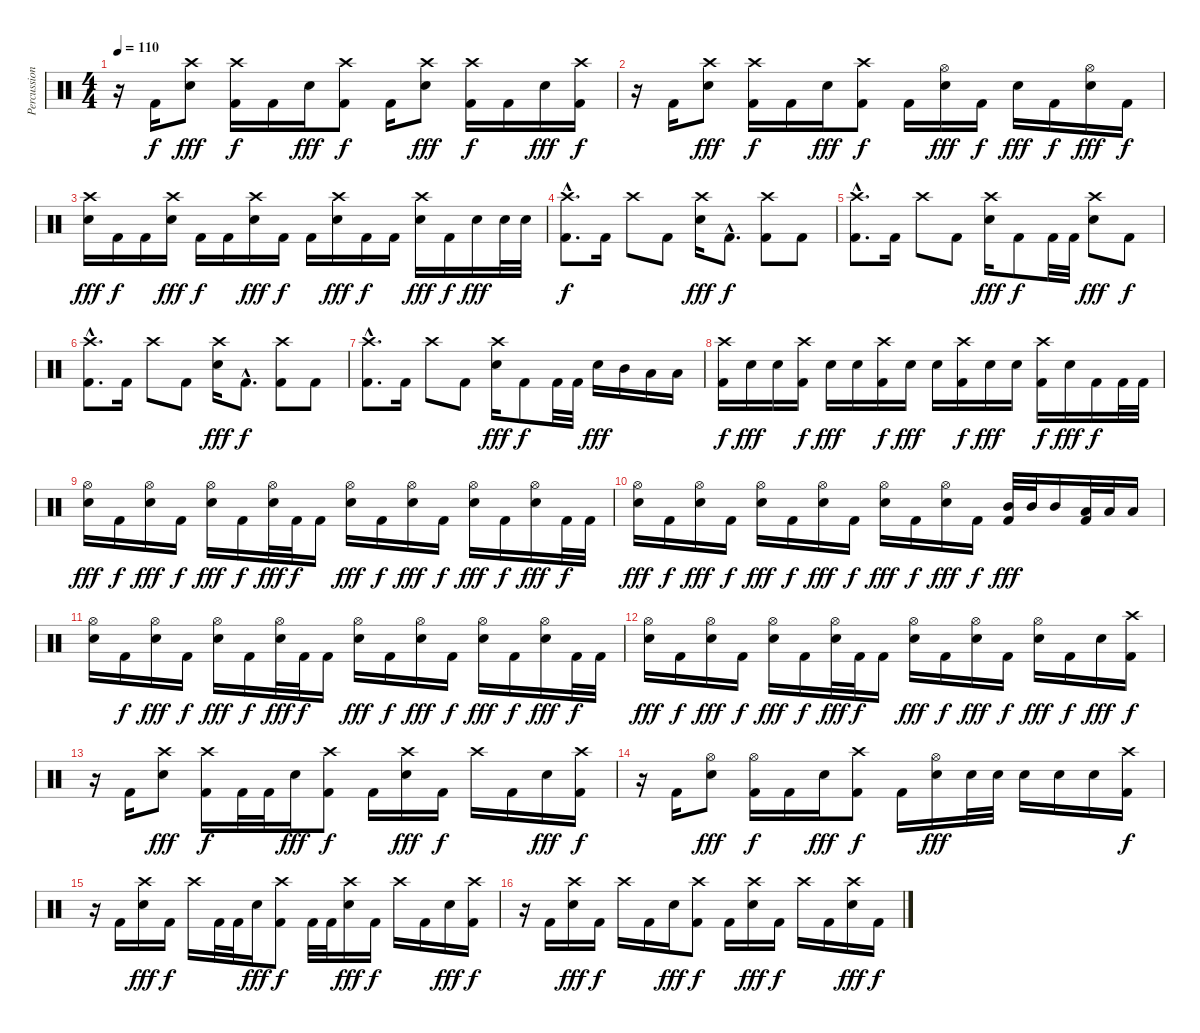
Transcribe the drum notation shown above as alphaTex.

\track ("Percussions" "Percussion") {instrument percussion}
\staff {score}
\articulation defaults
\ts (4 4)
\tempo 110
\clef neutral
\ks c
r.16{dy f} "Kick (hit) 2".16 ("Crash high (hit)" "Snare (hit) 2").8{dy fff} ("Crash high (hit)" "Kick (hit) 2").16{dy f} "Kick (hit) 2".16 "Snare (hit) 2".16{dy fff} ("Crash high (hit)" "Kick (hit) 2").8{dy f} "Kick (hit) 2".16 ("Crash high (hit)" "Snare (hit) 2").8{dy fff} ("Crash high (hit)" "Kick (hit) 2").16{dy f} "Kick (hit) 2".16 "Snare (hit) 2".16{dy fff} ("Crash high (hit)" "Kick (hit) 2").16{dy f} |
r.16 "Kick (hit) 2".16 ("Crash high (hit)" "Snare (hit) 2").8{dy fff} ("Crash high (hit)" "Kick (hit) 2").16{dy f} "Kick (hit) 2".16 "Snare (hit) 2".16{dy fff} ("Crash high (hit)" "Kick (hit) 2").8{dy f} "Kick (hit) 2".16 ("Hi-Hat (open)" "Snare (hit) 2").16{dy fff} "Kick (hit) 2".16{dy f} "Snare (hit) 2".16{dy fff} "Kick (hit) 2".16{dy f} ("Hi-Hat (open)" "Snare (hit) 2").16{dy fff} "Kick (hit) 2".16{dy f} |
("Crash high (hit)" "Snare (hit) 2").16{dy fff} "Kick (hit) 2".16{dy f} "Kick (hit) 2".16 ("Crash high (hit)" "Snare (hit) 2").16{dy fff} "Kick (hit) 2".16{dy f} "Kick (hit) 2".16 ("Crash high (hit)" "Snare (hit) 2").16{dy fff} "Kick (hit) 2".16{dy f} "Kick (hit) 2".16 ("Crash high (hit)" "Snare (hit) 2").16{dy fff} "Kick (hit) 2".16{dy f} "Kick (hit) 2".16 ("Crash high (hit)" "Snare (hit) 2").16{dy fff} "Kick (hit) 2".16{dy f} "Snare (hit) 2".16{dy fff} "Snare (hit) 2".32 "Snare (hit) 2".32 |
("Crash high (hit)"{hac} "Kick (hit) 2"{hac}).8{d dy f} "Kick (hit) 2".16 "Crash high (hit)".8 "Kick (hit) 2".8 ("Crash high (hit)" "Snare (hit) 2").16{dy fff} "Kick (hit) 2"{hac}.8{d dy f} ("Crash high (hit)" "Kick (hit) 2").8 "Kick (hit) 2".8 |
("Crash high (hit)"{hac} "Kick (hit) 2"{hac}).8{d} "Kick (hit) 2".16 "Crash high (hit)".8 "Kick (hit) 2".8 ("Crash high (hit)" "Snare (hit) 2").16{dy fff} "Kick (hit) 2".8{dy f} "Kick (hit) 2".32 "Kick (hit) 2".32 ("Crash high (hit)" "Snare (hit) 2").8{dy fff} "Kick (hit) 2".8{dy f} |
("Crash high (hit)"{hac} "Kick (hit) 2"{hac}).8{d} "Kick (hit) 2".16 "Crash high (hit)".8 "Kick (hit) 2".8 ("Crash high (hit)" "Snare (hit) 2").16{dy fff} "Kick (hit) 2"{hac}.8{d dy f} ("Crash high (hit)" "Kick (hit) 2").8 "Kick (hit) 2".8 |
("Crash high (hit)"{hac} "Kick (hit) 2"{hac}).8{d} "Kick (hit) 2".16 "Crash high (hit)".8 "Kick (hit) 2".8 ("Crash high (hit)" "Snare (hit) 2").16{dy fff} "Kick (hit) 2".8{dy f} "Kick (hit) 2".32 "Kick (hit) 2".32 "Snare (hit) 2".16{dy fff} "Mid Tom (hit)".16 "Low Tom (hit)".16 "Low Tom (hit)".16 |
("Crash high (hit)" "Kick (hit) 2").16{dy f} "Snare (hit) 2".16{dy fff} "Snare (hit) 2".16 ("Crash high (hit)" "Kick (hit) 2").16{dy f} "Snare (hit) 2".16{dy fff} "Snare (hit) 2".16 ("Crash high (hit)" "Kick (hit) 2").16{dy f} "Snare (hit) 2".16{dy fff} "Snare (hit) 2".16 ("Crash high (hit)" "Kick (hit) 2").16{dy f} "Snare (hit) 2".16{dy fff} "Snare (hit) 2".16 ("Crash high (hit)" "Kick (hit) 2").16{dy f} "Snare (hit) 2".16{dy fff} "Kick (hit) 2".16{dy f} "Kick (hit) 2".32 "Kick (hit) 2".32 |
("Hi-Hat (open)" "Snare (hit) 2").16{dy fff} "Kick (hit) 2".16{dy f} ("Hi-Hat (open)" "Snare (hit) 2").16{dy fff} "Kick (hit) 2".16{dy f} ("Hi-Hat (open)" "Snare (hit) 2").16{dy fff} "Kick (hit) 2".16{dy f} ("Hi-Hat (open)" "Snare (hit) 2").32{dy fff} "Kick (hit) 2".32{dy f} "Kick (hit) 2".16 ("Hi-Hat (open)" "Snare (hit) 2").16{dy fff} "Kick (hit) 2".16{dy f} ("Hi-Hat (open)" "Snare (hit) 2").16{dy fff} "Kick (hit) 2".16{dy f} ("Hi-Hat (open)" "Snare (hit) 2").16{dy fff} "Kick (hit) 2".16{dy f} ("Hi-Hat (open)" "Snare (hit) 2").16{dy fff} "Kick (hit) 2".32{dy f} "Kick (hit) 2".32 |
("Hi-Hat (open)" "Snare (hit) 2").16{dy fff} "Kick (hit) 2".16{dy f} ("Hi-Hat (open)" "Snare (hit) 2").16{dy fff} "Kick (hit) 2".16{dy f} ("Hi-Hat (open)" "Snare (hit) 2").16{dy fff} "Kick (hit) 2".16{dy f} ("Hi-Hat (open)" "Snare (hit) 2").16{dy fff} "Kick (hit) 2".16{dy f} ("Hi-Hat (open)" "Snare (hit) 2").16{dy fff} "Kick (hit) 2".16{dy f} ("Hi-Hat (open)" "Snare (hit) 2").16{dy fff} "Kick (hit) 2".16{dy f} ("Mid Tom (hit)" "Kick (hit) 2").32{dy fff} "Mid Tom (hit)".32 "Mid Tom (hit)".16 ("Low Tom (hit)" "Kick (hit) 2").32 "Low Tom (hit)".32 "Low Tom (hit)".16 |
("Hi-Hat (open)" "Snare (hit) 2").16 "Kick (hit) 2".16{dy f} ("Hi-Hat (open)" "Snare (hit) 2").16{dy fff} "Kick (hit) 2".16{dy f} ("Hi-Hat (open)" "Snare (hit) 2").16{dy fff} "Kick (hit) 2".16{dy f} ("Hi-Hat (open)" "Snare (hit) 2").32{dy fff} "Kick (hit) 2".32{dy f} "Kick (hit) 2".16 ("Hi-Hat (open)" "Snare (hit) 2").16{dy fff} "Kick (hit) 2".16{dy f} ("Hi-Hat (open)" "Snare (hit) 2").16{dy fff} "Kick (hit) 2".16{dy f} ("Hi-Hat (open)" "Snare (hit) 2").16{dy fff} "Kick (hit) 2".16{dy f} ("Hi-Hat (open)" "Snare (hit) 2").16{dy fff} "Kick (hit) 2".32{dy f} "Kick (hit) 2".32 |
("Hi-Hat (open)" "Snare (hit) 2").16{dy fff} "Kick (hit) 2".16{dy f} ("Hi-Hat (open)" "Snare (hit) 2").16{dy fff} "Kick (hit) 2".16{dy f} ("Hi-Hat (open)" "Snare (hit) 2").16{dy fff} "Kick (hit) 2".16{dy f} ("Hi-Hat (open)" "Snare (hit) 2").32{dy fff} "Kick (hit) 2".32{dy f} "Kick (hit) 2".16 ("Hi-Hat (open)" "Snare (hit) 2").16{dy fff} "Kick (hit) 2".16{dy f} ("Hi-Hat (open)" "Snare (hit) 2").16{dy fff} "Kick (hit) 2".16{dy f} ("Hi-Hat (open)" "Snare (hit) 2").16{dy fff} "Kick (hit) 2".16{dy f} "Snare (hit) 2".16{dy fff} ("Crash high (hit)" "Kick (hit) 2").16{dy f} |
r.16 "Kick (hit) 2".16 ("Crash high (hit)" "Snare (hit) 2").8{dy fff} ("Crash high (hit)" "Kick (hit) 2").16{dy f} "Kick (hit) 2".32 "Kick (hit) 2".32 "Snare (hit) 2".16{dy fff} ("Crash high (hit)" "Kick (hit) 2").8{dy f} "Kick (hit) 2".16 ("Crash high (hit)" "Snare (hit) 2").16{dy fff} "Kick (hit) 2".16{dy f} "Crash high (hit)".16 "Kick (hit) 2".16 "Snare (hit) 2".16{dy fff} ("Crash high (hit)" "Kick (hit) 2").16{dy f} |
r.16 "Kick (hit) 2".16 ("Hi-Hat (open)" "Snare (hit) 2").8{dy fff} ("Hi-Hat (open)" "Kick (hit) 2").16{dy f} "Kick (hit) 2".16 "Snare (hit) 2".16{dy fff} ("Crash high (hit)" "Kick (hit) 2").8{dy f} "Kick (hit) 2".16 ("Hi-Hat (open)" "Snare (hit) 2").16{dy fff} "Snare (hit) 2".32 "Snare (hit) 2".32 "Snare (hit) 2".16 "Snare (hit) 2".16 "Snare (hit) 2".16 ("Crash high (hit)" "Kick (hit) 2").16{dy f} |
r.16 "Kick (hit) 2".16 ("Crash high (hit)" "Snare (hit) 2").16{dy fff} "Kick (hit) 2".16{dy f} "Crash high (hit)".16 "Kick (hit) 2".32 "Kick (hit) 2".32 "Snare (hit) 2".16{dy fff} ("Crash high (hit)" "Kick (hit) 2").8{dy f} "Kick (hit) 2".32 "Kick (hit) 2".32 ("Crash high (hit)" "Snare (hit) 2").16{dy fff} "Kick (hit) 2".16{dy f} "Crash high (hit)".16 "Kick (hit) 2".16 "Snare (hit) 2".16{dy fff} ("Crash high (hit)" "Kick (hit) 2").16{dy f} |
r.16 "Kick (hit) 2".16 ("Crash high (hit)" "Snare (hit) 2").16{dy fff} "Kick (hit) 2".16{dy f} "Crash high (hit)".16 "Kick (hit) 2".16 "Snare (hit) 2".16{dy fff} ("Crash high (hit)" "Kick (hit) 2").8{dy f} "Kick (hit) 2".16 ("Crash high (hit)" "Snare (hit) 2").16{dy fff} "Kick (hit) 2".16{dy f} "Crash high (hit)".16 "Kick (hit) 2".16 ("Crash high (hit)" "Snare (hit) 2").16{dy fff} "Kick (hit) 2".16{dy f}
